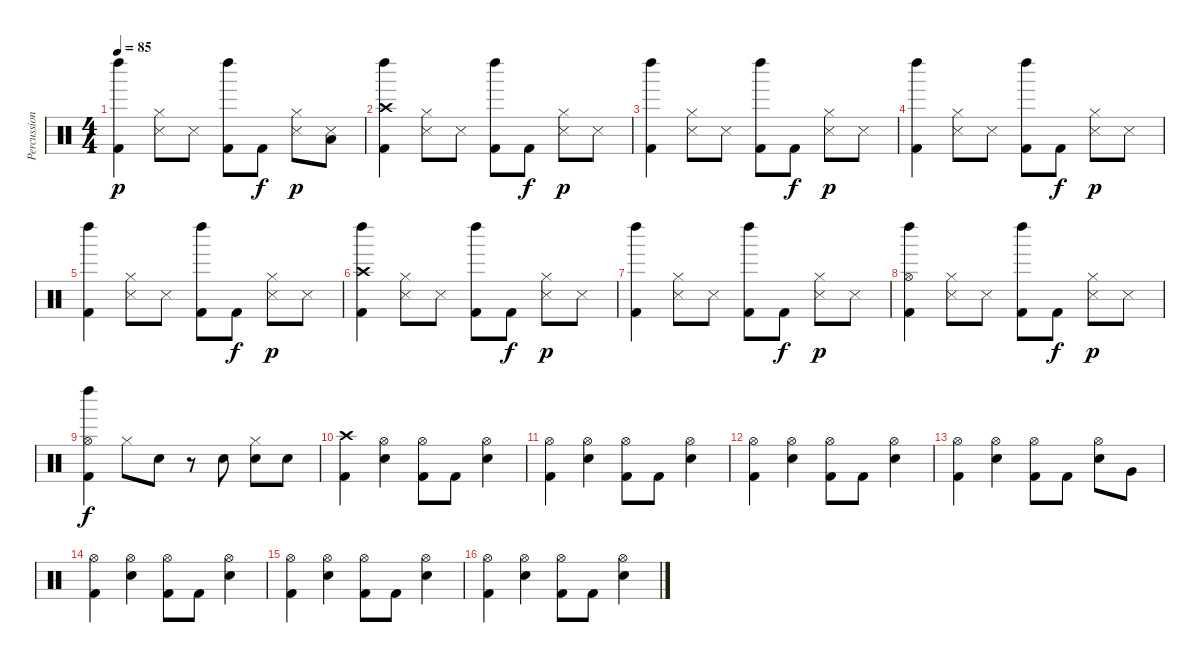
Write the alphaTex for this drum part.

\track ("Percussion" "Percussion") {instrument percussion}
\staff {score}
\articulation defaults
\ts (4 4)
\tempo 85
\clef neutral
\ks c
("Left Maraca (hit)" "Kick (hit) 2").4{dy p} ("Hi-Hat (closed)" "Metronome (hit)").8 "Metronome (hit)".8 ("Left Maraca (hit)" "Kick (hit) 2").8 "Kick (hit) 2".8{dy f} ("Hi-Hat (closed)" "Metronome (hit)").8{dy p} ("Metronome (hit)" "Low Tom (hit)").8 |
("Crash high (hit)" "Left Maraca (hit)" "Kick (hit) 2").4 ("Hi-Hat (closed)" "Metronome (hit)").8 "Metronome (hit)".8 ("Left Maraca (hit)" "Kick (hit) 2").8 "Kick (hit) 2".8{dy f} ("Hi-Hat (closed)" "Metronome (hit)").8{dy p} "Metronome (hit)".8 |
("Left Maraca (hit)" "Kick (hit) 2").4 ("Hi-Hat (closed)" "Metronome (hit)").8 "Metronome (hit)".8 ("Left Maraca (hit)" "Kick (hit) 2").8 "Kick (hit) 2".8{dy f} ("Hi-Hat (closed)" "Metronome (hit)").8{dy p} "Metronome (hit)".8 |
("Left Maraca (hit)" "Kick (hit) 2").4 ("Hi-Hat (closed)" "Metronome (hit)").8 "Metronome (hit)".8 ("Left Maraca (hit)" "Kick (hit) 2").8 "Kick (hit) 2".8{dy f} ("Hi-Hat (closed)" "Metronome (hit)").8{dy p} "Metronome (hit)".8 |
("Left Maraca (hit)" "Kick (hit) 2").4 ("Hi-Hat (closed)" "Metronome (hit)").8 "Metronome (hit)".8 ("Left Maraca (hit)" "Kick (hit) 2").8 "Kick (hit) 2".8{dy f} ("Hi-Hat (closed)" "Metronome (hit)").8{dy p} "Metronome (hit)".8 |
("Crash high (hit)" "Left Maraca (hit)" "Kick (hit) 2").4 ("Hi-Hat (closed)" "Metronome (hit)").8 "Metronome (hit)".8 ("Left Maraca (hit)" "Kick (hit) 2").8 "Kick (hit) 2".8{dy f} ("Hi-Hat (closed)" "Metronome (hit)").8{dy p} "Metronome (hit)".8 |
("Left Maraca (hit)" "Kick (hit) 2").4 ("Hi-Hat (closed)" "Metronome (hit)").8 "Metronome (hit)".8 ("Left Maraca (hit)" "Kick (hit) 2").8 "Kick (hit) 2".8{dy f} ("Hi-Hat (closed)" "Metronome (hit)").8{dy p} "Metronome (hit)".8 |
("Hi-Hat (open)" "Left Maraca (hit)" "Kick (hit) 2").4 ("Hi-Hat (closed)" "Metronome (hit)").8 "Metronome (hit)".8 ("Left Maraca (hit)" "Kick (hit) 2").8 "Kick (hit) 2".8{dy f} ("Hi-Hat (closed)" "Metronome (hit)").8{dy p} "Metronome (hit)".8 |
("Hi-Hat (open)" "Left Maraca (hit)" "Kick (hit) 2").4{dy f} "Hi-Hat (closed)".8 "Snare (hit) 2".8 r.8 "Snare (hit) 2".8 ("Hi-Hat (closed)" "Snare (hit) 2").8 "Snare (hit) 2".8 |
("Crash high (hit)" "Kick (hit) 2").4 ("Hi-Hat (open)" "Snare (hit) 2").4 ("Hi-Hat (open)" "Kick (hit) 2").8 "Kick (hit) 2".8 ("Hi-Hat (open)" "Snare (hit) 2").4 |
("Hi-Hat (open)" "Kick (hit) 2").4 ("Hi-Hat (open)" "Snare (hit) 2").4 ("Hi-Hat (open)" "Kick (hit) 2").8 "Kick (hit) 2".8 ("Hi-Hat (open)" "Snare (hit) 2").4 |
("Hi-Hat (open)" "Kick (hit) 2").4 ("Hi-Hat (open)" "Snare (hit) 2").4 ("Hi-Hat (open)" "Kick (hit) 2").8 "Kick (hit) 2".8 ("Hi-Hat (open)" "Snare (hit) 2").4 |
("Hi-Hat (open)" "Kick (hit) 2").4 ("Hi-Hat (open)" "Snare (hit) 2").4 ("Hi-Hat (open)" "Kick (hit) 2").8 "Kick (hit) 2".8 ("Hi-Hat (open)" "Snare (hit) 2").8 "Very Low Tom (hit)".8 |
("Hi-Hat (open)" "Kick (hit) 2").4 ("Hi-Hat (open)" "Snare (hit) 2").4 ("Hi-Hat (open)" "Kick (hit) 2").8 "Kick (hit) 2".8 ("Hi-Hat (open)" "Snare (hit) 2").4 |
("Hi-Hat (open)" "Kick (hit) 2").4 ("Hi-Hat (open)" "Snare (hit) 2").4 ("Hi-Hat (open)" "Kick (hit) 2").8 "Kick (hit) 2".8 ("Hi-Hat (open)" "Snare (hit) 2").4 |
("Hi-Hat (open)" "Kick (hit) 2").4 ("Hi-Hat (open)" "Snare (hit) 2").4 ("Hi-Hat (open)" "Kick (hit) 2").8 "Kick (hit) 2".8 ("Hi-Hat (open)" "Snare (hit) 2").4
